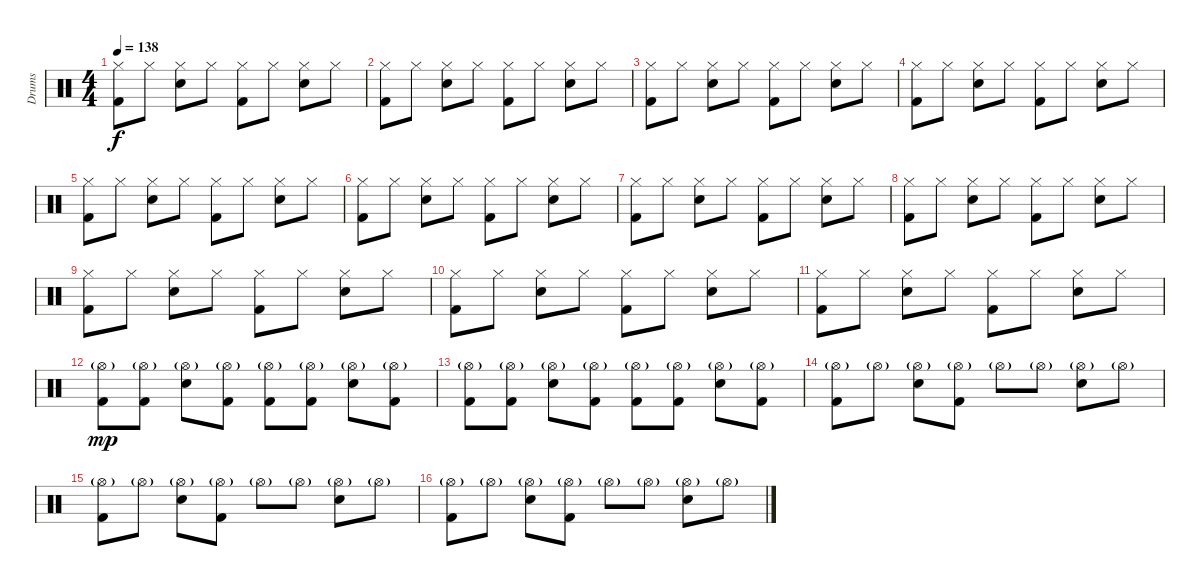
\track ("Drums" "Drums") {instrument percussion}
\staff {score}
\articulation defaults
\ts (4 4)
\tempo 138
\clef neutral
\ks c
("Hi-Hat (closed)" "Kick (hit) 2").8{dy f} "Hi-Hat (closed)".8 ("Hi-Hat (closed)" "Snare (hit) 2").8 "Hi-Hat (closed)".8 ("Hi-Hat (closed)" "Kick (hit) 2").8 "Hi-Hat (closed)".8 ("Hi-Hat (closed)" "Snare (hit) 2").8 "Hi-Hat (closed)".8 |
("Hi-Hat (closed)" "Kick (hit) 2").8 "Hi-Hat (closed)".8 ("Hi-Hat (closed)" "Snare (hit) 2").8 "Hi-Hat (closed)".8 ("Hi-Hat (closed)" "Kick (hit) 2").8 "Hi-Hat (closed)".8 ("Hi-Hat (closed)" "Snare (hit) 2").8 "Hi-Hat (closed)".8 |
("Hi-Hat (closed)" "Kick (hit) 2").8 "Hi-Hat (closed)".8 ("Hi-Hat (closed)" "Snare (hit) 2").8 "Hi-Hat (closed)".8 ("Hi-Hat (closed)" "Kick (hit) 2").8 "Hi-Hat (closed)".8 ("Hi-Hat (closed)" "Snare (hit) 2").8 "Hi-Hat (closed)".8 |
("Hi-Hat (closed)" "Kick (hit) 2").8 "Hi-Hat (closed)".8 ("Hi-Hat (closed)" "Snare (hit) 2").8 "Hi-Hat (closed)".8 ("Hi-Hat (closed)" "Kick (hit) 2").8 "Hi-Hat (closed)".8 ("Hi-Hat (closed)" "Snare (hit) 2").8 "Hi-Hat (closed)".8 |
("Hi-Hat (closed)" "Kick (hit) 2").8 "Hi-Hat (closed)".8 ("Hi-Hat (closed)" "Snare (hit) 2").8 "Hi-Hat (closed)".8 ("Hi-Hat (closed)" "Kick (hit) 2").8 "Hi-Hat (closed)".8 ("Hi-Hat (closed)" "Snare (hit) 2").8 "Hi-Hat (closed)".8 |
("Hi-Hat (closed)" "Kick (hit) 2").8 "Hi-Hat (closed)".8 ("Hi-Hat (closed)" "Snare (hit) 2").8 "Hi-Hat (closed)".8 ("Hi-Hat (closed)" "Kick (hit) 2").8 "Hi-Hat (closed)".8 ("Hi-Hat (closed)" "Snare (hit) 2").8 "Hi-Hat (closed)".8 |
("Hi-Hat (closed)" "Kick (hit) 2").8 "Hi-Hat (closed)".8 ("Hi-Hat (closed)" "Snare (hit) 2").8 "Hi-Hat (closed)".8 ("Hi-Hat (closed)" "Kick (hit) 2").8 "Hi-Hat (closed)".8 ("Hi-Hat (closed)" "Snare (hit) 2").8 "Hi-Hat (closed)".8 |
("Hi-Hat (closed)" "Kick (hit) 2").8 "Hi-Hat (closed)".8 ("Hi-Hat (closed)" "Snare (hit) 2").8 "Hi-Hat (closed)".8 ("Hi-Hat (closed)" "Kick (hit) 2").8 "Hi-Hat (closed)".8 ("Hi-Hat (closed)" "Snare (hit) 2").8 "Hi-Hat (closed)".8 |
("Hi-Hat (closed)" "Kick (hit) 2").8 "Hi-Hat (closed)".8 ("Hi-Hat (closed)" "Snare (hit) 2").8 "Hi-Hat (closed)".8 ("Hi-Hat (closed)" "Kick (hit) 2").8 "Hi-Hat (closed)".8 ("Hi-Hat (closed)" "Snare (hit) 2").8 "Hi-Hat (closed)".8 |
("Hi-Hat (closed)" "Kick (hit) 2").8 "Hi-Hat (closed)".8 ("Hi-Hat (closed)" "Snare (hit) 2").8 "Hi-Hat (closed)".8 ("Hi-Hat (closed)" "Kick (hit) 2").8 "Hi-Hat (closed)".8 ("Hi-Hat (closed)" "Snare (hit) 2").8 "Hi-Hat (closed)".8 |
("Hi-Hat (closed)" "Kick (hit) 2").8 "Hi-Hat (closed)".8 ("Hi-Hat (closed)" "Snare (hit) 2").8 "Hi-Hat (closed)".8 ("Hi-Hat (closed)" "Kick (hit) 2").8 "Hi-Hat (closed)".8 ("Hi-Hat (closed)" "Snare (hit) 2").8 "Hi-Hat (closed)".8 |
("Hi-Hat (open)"{g} "Kick (hit) 2").8{dy mp} ("Hi-Hat (open)"{g} "Kick (hit) 2").8 ("Hi-Hat (open)"{g} "Snare (hit) 2").8 ("Hi-Hat (open)"{g} "Kick (hit) 2").8 ("Hi-Hat (open)"{g} "Kick (hit) 2").8 ("Hi-Hat (open)"{g} "Kick (hit) 2").8 ("Hi-Hat (open)"{g} "Snare (hit) 2").8 ("Hi-Hat (open)"{g} "Kick (hit) 2").8 |
("Hi-Hat (open)"{g} "Kick (hit) 2").8 ("Hi-Hat (open)"{g} "Kick (hit) 2").8 ("Hi-Hat (open)"{g} "Snare (hit) 2").8 ("Hi-Hat (open)"{g} "Kick (hit) 2").8 ("Hi-Hat (open)"{g} "Kick (hit) 2").8 ("Hi-Hat (open)"{g} "Kick (hit) 2").8 ("Hi-Hat (open)"{g} "Snare (hit) 2").8 ("Hi-Hat (open)"{g} "Kick (hit) 2").8 |
("Hi-Hat (open)"{g} "Kick (hit) 2").8 "Hi-Hat (open)"{g}.8 ("Hi-Hat (open)"{g} "Snare (hit) 2").8 ("Hi-Hat (open)"{g} "Kick (hit) 2").8 "Hi-Hat (open)"{g}.8 "Hi-Hat (open)"{g}.8 ("Hi-Hat (open)"{g} "Snare (hit) 2").8 "Hi-Hat (open)"{g}.8 |
("Hi-Hat (open)"{g} "Kick (hit) 2").8 "Hi-Hat (open)"{g}.8 ("Hi-Hat (open)"{g} "Snare (hit) 2").8 ("Hi-Hat (open)"{g} "Kick (hit) 2").8 "Hi-Hat (open)"{g}.8 "Hi-Hat (open)"{g}.8 ("Hi-Hat (open)"{g} "Snare (hit) 2").8 "Hi-Hat (open)"{g}.8 |
("Hi-Hat (open)"{g} "Kick (hit) 2").8 "Hi-Hat (open)"{g}.8 ("Hi-Hat (open)"{g} "Snare (hit) 2").8 ("Hi-Hat (open)"{g} "Kick (hit) 2").8 "Hi-Hat (open)"{g}.8 "Hi-Hat (open)"{g}.8 ("Hi-Hat (open)"{g} "Snare (hit) 2").8 "Hi-Hat (open)"{g}.8
